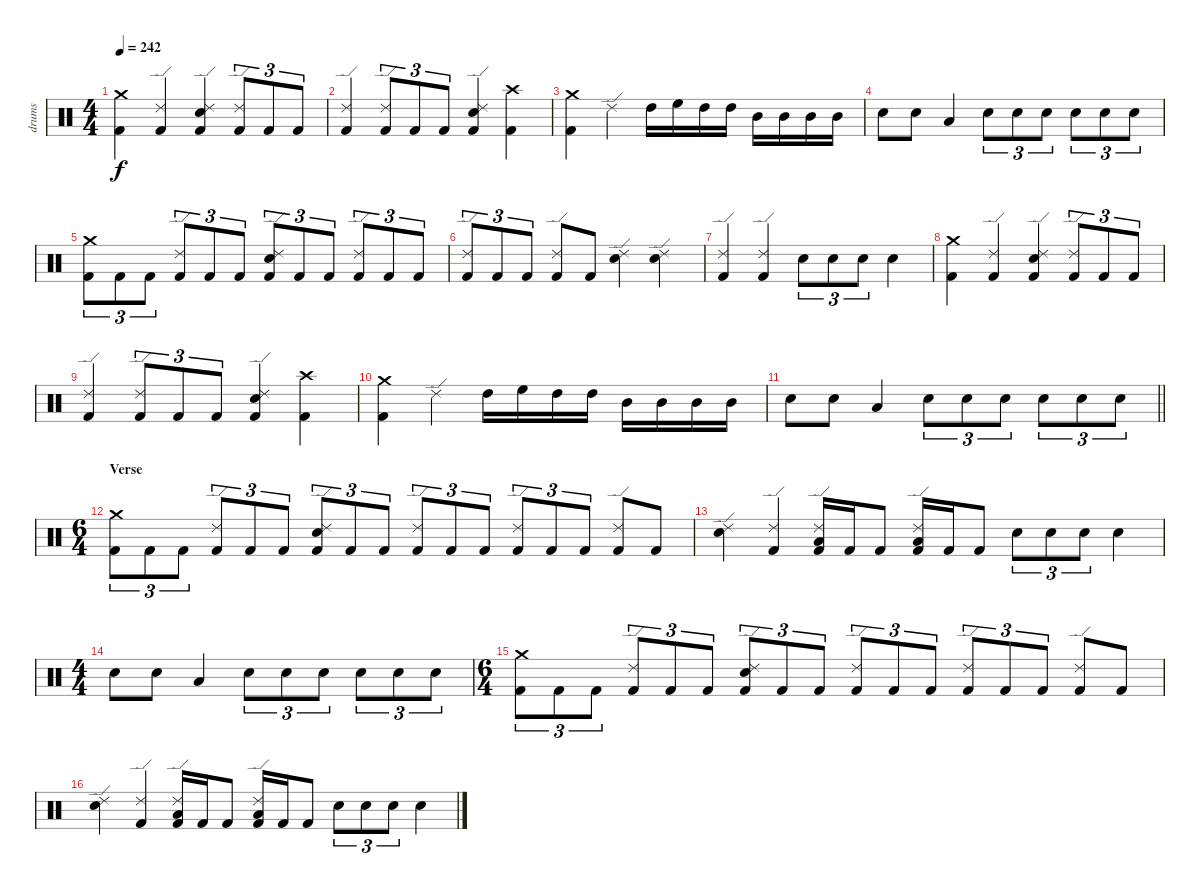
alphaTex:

\track ("drums" "drums") {instrument percussion}
\staff {score}
\articulation defaults
\ts (4 4)
\tempo 242
\clef neutral
\ks c
("Crash medium (hit)" "Kick (hit) 2").4{dy f} ("Ride (edge) 2" "Kick (hit) 2").4 ("Ride (edge) 2" "Electric Snare (hit)" "Kick (hit) 2").4 ("Ride (edge) 2" "Kick (hit) 2").8{tu (3 2)} "Kick (hit) 2".8{tu (3 2)} "Kick (hit) 2".8{tu (3 2)} |
("Ride (edge) 2" "Kick (hit) 2").4 ("Ride (edge) 2" "Kick (hit) 2").8{tu (3 2)} "Kick (hit) 2".8{tu (3 2)} "Kick (hit) 2".8{tu (3 2)} ("Ride (edge) 2" "Electric Snare (hit)" "Kick (hit) 2").4 ("Crash high (hit)" "Kick (hit) 2").4 |
("Crash medium (hit)" "Kick (hit) 2").4 "Ride (edge) 2".4 "High Tom (hit)".16 "High Floor Tom (hit)".16 "High Tom (hit)".16 "High Tom (hit)".16 "Mid Tom (hit)".16 "Mid Tom (hit)".16 "Mid Tom (hit)".16 "Mid Tom (hit)".16 |
"Electric Snare (hit)".8 "Electric Snare (hit)".8 "Low Tom (hit)".4 "Electric Snare (hit)".8{tu (3 2)} "Electric Snare (hit)".8{tu (3 2)} "Electric Snare (hit)".8{tu (3 2)} "Electric Snare (hit)".8{tu (3 2)} "Electric Snare (hit)".8{tu (3 2)} "Electric Snare (hit)".8{tu (3 2)} |
("Crash medium (hit)" "Kick (hit) 2").8{tu (3 2)} "Kick (hit) 2".8{tu (3 2)} "Kick (hit) 2".8{tu (3 2)} ("Ride (edge) 2" "Kick (hit) 2").8{tu (3 2)} "Kick (hit) 2".8{tu (3 2)} "Kick (hit) 2".8{tu (3 2)} ("Ride (edge) 2" "Electric Snare (hit)" "Kick (hit) 2").8{tu (3 2)} "Kick (hit) 2".8{tu (3 2)} "Kick (hit) 2".8{tu (3 2)} ("Ride (edge) 2" "Kick (hit) 2").8{tu (3 2)} "Kick (hit) 2".8{tu (3 2)} "Kick (hit) 2".8{tu (3 2)} |
("Ride (edge) 2" "Kick (hit) 2").8{tu (3 2)} "Kick (hit) 2".8{tu (3 2)} "Kick (hit) 2".8{tu (3 2)} ("Ride (edge) 2" "Kick (hit) 2").8 "Kick (hit) 2".8 ("Ride (edge) 2" "Electric Snare (hit)").4 ("Ride (edge) 2" "Electric Snare (hit)").4 |
("Ride (edge) 2" "Kick (hit) 2").4 ("Ride (edge) 2" "Kick (hit) 2").4 "Electric Snare (hit)".8{tu (3 2)} "Electric Snare (hit)".8{tu (3 2)} "Electric Snare (hit)".8{tu (3 2)} "Electric Snare (hit)".4 |
("Crash medium (hit)" "Kick (hit) 2").4 ("Ride (edge) 2" "Kick (hit) 2").4 ("Ride (edge) 2" "Electric Snare (hit)" "Kick (hit) 2").4 ("Ride (edge) 2" "Kick (hit) 2").8{tu (3 2)} "Kick (hit) 2".8{tu (3 2)} "Kick (hit) 2".8{tu (3 2)} |
("Ride (edge) 2" "Kick (hit) 2").4 ("Ride (edge) 2" "Kick (hit) 2").8{tu (3 2)} "Kick (hit) 2".8{tu (3 2)} "Kick (hit) 2".8{tu (3 2)} ("Ride (edge) 2" "Electric Snare (hit)" "Kick (hit) 2").4 ("Crash high (hit)" "Kick (hit) 2").4 |
("Crash medium (hit)" "Kick (hit) 2").4 "Ride (edge) 2".4 "High Tom (hit)".16 "High Floor Tom (hit)".16 "High Tom (hit)".16 "High Tom (hit)".16 "Mid Tom (hit)".16 "Mid Tom (hit)".16 "Mid Tom (hit)".16 "Mid Tom (hit)".16 |
\barLineRight lightlight "Electric Snare (hit)".8 "Electric Snare (hit)".8 "Low Tom (hit)".4 "Electric Snare (hit)".8{tu (3 2)} "Electric Snare (hit)".8{tu (3 2)} "Electric Snare (hit)".8{tu (3 2)} "Electric Snare (hit)".8{tu (3 2)} "Electric Snare (hit)".8{tu (3 2)} "Electric Snare (hit)".8{tu (3 2)}
|
\ts (6 4)
\section ("" "Verse")
("Crash medium (hit)" "Kick (hit) 2").8{tu (3 2)} "Kick (hit) 2".8{tu (3 2)} "Kick (hit) 2".8{tu (3 2)} ("Ride (edge) 2" "Kick (hit) 2").8{tu (3 2)} "Kick (hit) 2".8{tu (3 2)} "Kick (hit) 2".8{tu (3 2)} ("Ride (edge) 2" "Electric Snare (hit)" "Kick (hit) 2").8{tu (3 2)} "Kick (hit) 2".8{tu (3 2)} "Kick (hit) 2".8{tu (3 2)} ("Ride (edge) 2" "Kick (hit) 2").8{tu (3 2)} "Kick (hit) 2".8{tu (3 2)} "Kick (hit) 2".8{tu (3 2)} ("Ride (edge) 2" "Kick (hit) 2").8{tu (3 2)} "Kick (hit) 2".8{tu (3 2)} "Kick (hit) 2".8{tu (3 2)} ("Ride (edge) 2" "Kick (hit) 2").8 "Kick (hit) 2".8 |
("Ride (edge) 2" "Electric Snare (hit)").4 ("Ride (edge) 2" "Kick (hit) 2").4 ("Ride (edge) 2" "Low Tom (hit)" "Kick (hit) 2").16 "Kick (hit) 2".16 "Kick (hit) 2".8 ("Ride (edge) 2" "Low Tom (hit)" "Kick (hit) 2").16 "Kick (hit) 2".16 "Kick (hit) 2".8 "Electric Snare (hit)".8{tu (3 2)} "Electric Snare (hit)".8{tu (3 2)} "Electric Snare (hit)".8{tu (3 2)} "Electric Snare (hit)".4 |
\ts (4 4)
"Electric Snare (hit)".8 "Electric Snare (hit)".8 "Low Tom (hit)".4 "Electric Snare (hit)".8{tu (3 2)} "Electric Snare (hit)".8{tu (3 2)} "Electric Snare (hit)".8{tu (3 2)} "Electric Snare (hit)".8{tu (3 2)} "Electric Snare (hit)".8{tu (3 2)} "Electric Snare (hit)".8{tu (3 2)} |
\ts (6 4)
("Crash medium (hit)" "Kick (hit) 2").8{tu (3 2)} "Kick (hit) 2".8{tu (3 2)} "Kick (hit) 2".8{tu (3 2)} ("Ride (edge) 2" "Kick (hit) 2").8{tu (3 2)} "Kick (hit) 2".8{tu (3 2)} "Kick (hit) 2".8{tu (3 2)} ("Ride (edge) 2" "Electric Snare (hit)" "Kick (hit) 2").8{tu (3 2)} "Kick (hit) 2".8{tu (3 2)} "Kick (hit) 2".8{tu (3 2)} ("Ride (edge) 2" "Kick (hit) 2").8{tu (3 2)} "Kick (hit) 2".8{tu (3 2)} "Kick (hit) 2".8{tu (3 2)} ("Ride (edge) 2" "Kick (hit) 2").8{tu (3 2)} "Kick (hit) 2".8{tu (3 2)} "Kick (hit) 2".8{tu (3 2)} ("Ride (edge) 2" "Kick (hit) 2").8 "Kick (hit) 2".8 |
("Ride (edge) 2" "Electric Snare (hit)").4 ("Ride (edge) 2" "Kick (hit) 2").4 ("Ride (edge) 2" "Low Tom (hit)" "Kick (hit) 2").16 "Kick (hit) 2".16 "Kick (hit) 2".8 ("Ride (edge) 2" "Low Tom (hit)" "Kick (hit) 2").16 "Kick (hit) 2".16 "Kick (hit) 2".8 "Electric Snare (hit)".8{tu (3 2)} "Electric Snare (hit)".8{tu (3 2)} "Electric Snare (hit)".8{tu (3 2)} "Electric Snare (hit)".4
